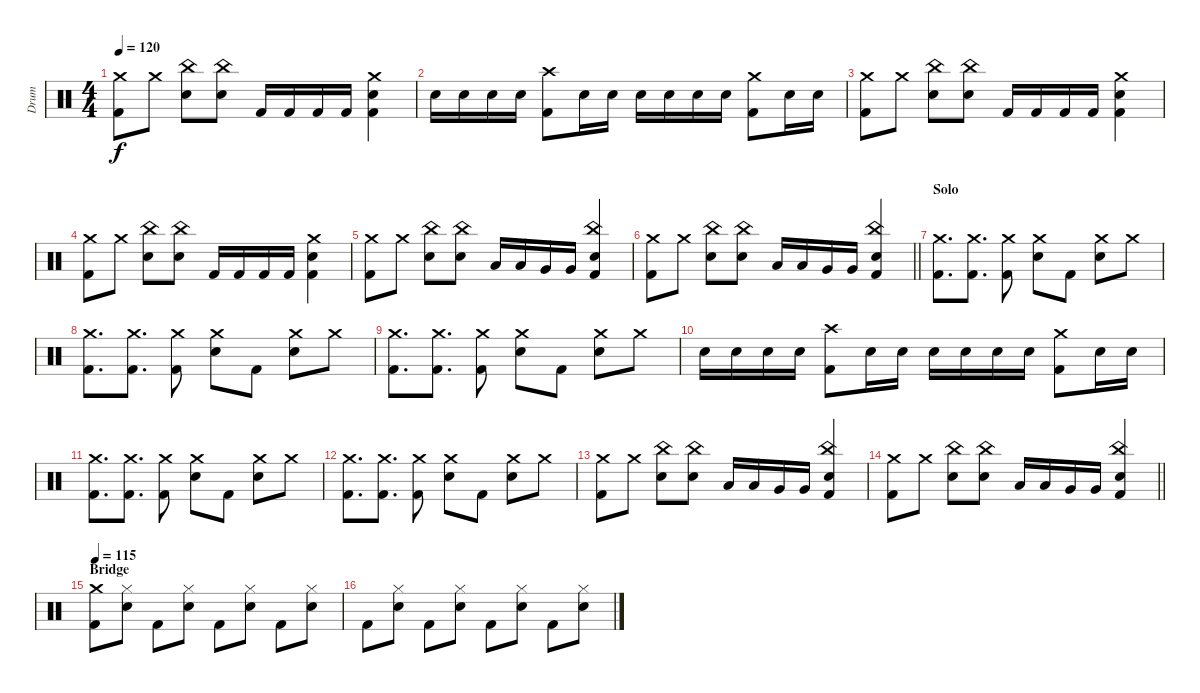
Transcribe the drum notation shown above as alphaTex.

\track ("Drum" "Drum") {instrument percussion}
\staff {score}
\articulation defaults
\ts (4 4)
\tempo 120
\clef neutral
\ks c
("Crash medium (hit)" "Kick (hit) 2").8{dy f} "Crash medium (hit)".8 ("China (hit)" "Snare (hit) 2").8 ("China (hit)" "Snare (hit) 2").8 "Kick (hit) 2".16 "Kick (hit) 2".16 "Kick (hit) 2".16 "Kick (hit) 2".16 ("Crash medium (hit)" "Snare (hit) 2" "Kick (hit) 2").4 |
"Snare (hit) 2".16 "Snare (hit) 2".16 "Snare (hit) 2".16 "Snare (hit) 2".16 ("Crash high (hit)" "Kick (hit) 2").8 "Snare (hit) 2".16 "Snare (hit) 2".16 "Snare (hit) 2".16 "Snare (hit) 2".16 "Snare (hit) 2".16 "Snare (hit) 2".16 ("Crash medium (hit)" "Kick (hit) 2").8 "Snare (hit) 2".16 "Snare (hit) 2".16 |
("Crash medium (hit)" "Kick (hit) 2").8 "Crash medium (hit)".8 ("China (hit)" "Snare (hit) 2").8 ("China (hit)" "Snare (hit) 2").8 "Kick (hit) 2".16 "Kick (hit) 2".16 "Kick (hit) 2".16 "Kick (hit) 2".16 ("Crash medium (hit)" "Snare (hit) 2" "Kick (hit) 2").4 |
("Crash medium (hit)" "Kick (hit) 2").8 "Crash medium (hit)".8 ("China (hit)" "Snare (hit) 2").8 ("China (hit)" "Snare (hit) 2").8 "Kick (hit) 2".16 "Kick (hit) 2".16 "Kick (hit) 2".16 "Kick (hit) 2".16 ("Crash medium (hit)" "Snare (hit) 2" "Kick (hit) 2").4 |
("Crash medium (hit)" "Kick (hit) 2").8 "Crash medium (hit)".8 ("China (hit)" "Snare (hit) 2").8 ("China (hit)" "Snare (hit) 2").8 "Low Floor Tom (hit)".16 "Low Floor Tom (hit)".16 "Very Low Tom (hit)".16 "Very Low Tom (hit)".16 ("China (hit)" "Snare (hit) 2" "Kick (hit) 2").4 |
\barLineRight lightlight
("Crash medium (hit)" "Kick (hit) 2").8 "Crash medium (hit)".8 ("China (hit)" "Snare (hit) 2").8 ("China (hit)" "Snare (hit) 2").8 "Low Floor Tom (hit)".16 "Low Floor Tom (hit)".16 "Very Low Tom (hit)".16 "Very Low Tom (hit)".16 ("China (hit)" "Snare (hit) 2" "Kick (hit) 2").4 |
\section ("" "Solo")
("Crash medium (hit)" "Kick (hit) 2").8{d} ("Crash medium (hit)" "Kick (hit) 2").8{d} ("Crash medium (hit)" "Kick (hit) 2").8 ("Crash medium (hit)" "Snare (hit) 2").8 "Kick (hit) 2".8 ("Crash medium (hit)" "Snare (hit) 2").8 "Crash medium (hit)".8 |
("Crash medium (hit)" "Kick (hit) 2").8{d} ("Crash medium (hit)" "Kick (hit) 2").8{d} ("Crash medium (hit)" "Kick (hit) 2").8 ("Crash medium (hit)" "Snare (hit) 2").8 "Kick (hit) 2".8 ("Crash medium (hit)" "Snare (hit) 2").8 "Crash medium (hit)".8 |
("Crash medium (hit)" "Kick (hit) 2").8{d} ("Crash medium (hit)" "Kick (hit) 2").8{d} ("Crash medium (hit)" "Kick (hit) 2").8 ("Crash medium (hit)" "Snare (hit) 2").8 "Kick (hit) 2".8 ("Crash medium (hit)" "Snare (hit) 2").8 "Crash medium (hit)".8 |
"Snare (hit) 2".16 "Snare (hit) 2".16 "Snare (hit) 2".16 "Snare (hit) 2".16 ("Crash high (hit)" "Kick (hit) 2").8 "Snare (hit) 2".16 "Snare (hit) 2".16 "Snare (hit) 2".16 "Snare (hit) 2".16 "Snare (hit) 2".16 "Snare (hit) 2".16 ("Crash medium (hit)" "Kick (hit) 2").8 "Snare (hit) 2".16 "Snare (hit) 2".16 |
("Crash medium (hit)" "Kick (hit) 2").8{d} ("Crash medium (hit)" "Kick (hit) 2").8{d} ("Crash medium (hit)" "Kick (hit) 2").8 ("Crash medium (hit)" "Snare (hit) 2").8 "Kick (hit) 2".8 ("Crash medium (hit)" "Snare (hit) 2").8 "Crash medium (hit)".8 |
("Crash medium (hit)" "Kick (hit) 2").8{d} ("Crash medium (hit)" "Kick (hit) 2").8{d} ("Crash medium (hit)" "Kick (hit) 2").8 ("Crash medium (hit)" "Snare (hit) 2").8 "Kick (hit) 2".8 ("Crash medium (hit)" "Snare (hit) 2").8 "Crash medium (hit)".8 |
("Crash medium (hit)" "Kick (hit) 2").8 "Crash medium (hit)".8 ("China (hit)" "Snare (hit) 2").8 ("China (hit)" "Snare (hit) 2").8 "Low Floor Tom (hit)".16 "Low Floor Tom (hit)".16 "Very Low Tom (hit)".16 "Very Low Tom (hit)".16 ("China (hit)" "Snare (hit) 2" "Kick (hit) 2").4 |
\barLineRight lightlight
("Crash medium (hit)" "Kick (hit) 2").8 "Crash medium (hit)".8 ("China (hit)" "Snare (hit) 2").8 ("China (hit)" "Snare (hit) 2").8 "Low Floor Tom (hit)".16 "Low Floor Tom (hit)".16 "Very Low Tom (hit)".16 "Very Low Tom (hit)".16 ("China (hit)" "Snare (hit) 2" "Kick (hit) 2").4 |
\section ("" "Bridge")
\tempo 115
("Crash medium (hit)" "Kick (hit) 2").8 ("Hi-Hat (closed)" "Snare (hit) 2").8 "Kick (hit) 2".8 ("Hi-Hat (closed)" "Snare (hit) 2").8 "Kick (hit) 2".8 ("Hi-Hat (closed)" "Snare (hit) 2").8 "Kick (hit) 2".8 ("Hi-Hat (closed)" "Snare (hit) 2").8 |
"Kick (hit) 2".8 ("Hi-Hat (closed)" "Snare (hit) 2").8 "Kick (hit) 2".8 ("Hi-Hat (closed)" "Snare (hit) 2").8 "Kick (hit) 2".8 ("Hi-Hat (closed)" "Snare (hit) 2").8 "Kick (hit) 2".8 ("Hi-Hat (closed)" "Snare (hit) 2").8
